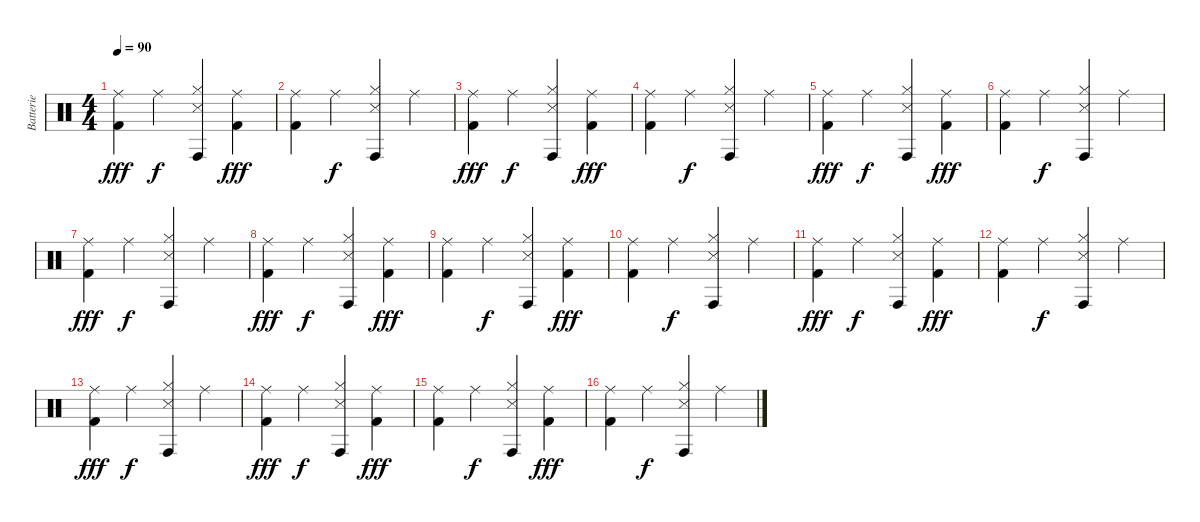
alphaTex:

\track ("Batterie" "Batterie") {instrument percussion}
\staff {score}
\articulation defaults
\ts (4 4)
\tempo 90
\clef neutral
\ks c
("Ride (middle)" "Kick (hit) 2").4{dy fff} "Ride (middle)".4{dy f} ("Snare (side stick) 3" "Hi-Hat (closed)" "Conga high (hit)").4 ("Ride (middle)" "Kick (hit) 2").4{dy fff} |
("Ride (middle)" "Kick (hit) 2").4 "Ride (middle)".4{dy f} ("Snare (side stick) 3" "Hi-Hat (closed)" "Conga high (hit)").4 "Ride (middle)".4 |
("Ride (middle)" "Kick (hit) 2").4{dy fff} "Ride (middle)".4{dy f} ("Snare (side stick) 3" "Hi-Hat (closed)" "Conga high (hit)").4 ("Ride (middle)" "Kick (hit) 2").4{dy fff} |
("Ride (middle)" "Kick (hit) 2").4 "Ride (middle)".4{dy f} ("Snare (side stick) 3" "Hi-Hat (closed)" "Conga high (hit)").4 "Ride (middle)".4 |
("Ride (middle)" "Kick (hit) 2").4{dy fff} "Ride (middle)".4{dy f} ("Snare (side stick) 3" "Hi-Hat (closed)" "Conga high (hit)").4 ("Ride (middle)" "Kick (hit) 2").4{dy fff} |
("Ride (middle)" "Kick (hit) 2").4 "Ride (middle)".4{dy f} ("Snare (side stick) 3" "Hi-Hat (closed)" "Conga high (hit)").4 "Ride (middle)".4 |
("Ride (middle)" "Kick (hit) 2").4{dy fff} "Ride (middle)".4{dy f} ("Snare (side stick) 3" "Hi-Hat (closed)" "Conga high (hit)").4 "Ride (middle)".4 |
("Ride (middle)" "Kick (hit) 2").4{dy fff} "Ride (middle)".4{dy f} ("Snare (side stick) 3" "Hi-Hat (closed)" "Conga high (hit)").4 ("Ride (middle)" "Kick (hit) 2").4{dy fff} |
("Ride (middle)" "Kick (hit) 2").4 "Ride (middle)".4{dy f} ("Snare (side stick) 3" "Hi-Hat (closed)" "Conga high (hit)").4 ("Ride (middle)" "Kick (hit) 2").4{dy fff} |
("Ride (middle)" "Kick (hit) 2").4 "Ride (middle)".4{dy f} ("Snare (side stick) 3" "Hi-Hat (closed)" "Conga high (hit)").4 "Ride (middle)".4 |
("Ride (middle)" "Kick (hit) 2").4{dy fff} "Ride (middle)".4{dy f} ("Snare (side stick) 3" "Hi-Hat (closed)" "Conga high (hit)").4 ("Ride (middle)" "Kick (hit) 2").4{dy fff} |
("Ride (middle)" "Kick (hit) 2").4 "Ride (middle)".4{dy f} ("Snare (side stick) 3" "Hi-Hat (closed)" "Conga high (hit)").4 "Ride (middle)".4 |
("Ride (middle)" "Kick (hit) 2").4{dy fff} "Ride (middle)".4{dy f} ("Snare (side stick) 3" "Hi-Hat (closed)" "Conga high (hit)").4 "Ride (middle)".4 |
("Ride (middle)" "Kick (hit) 2").4{dy fff} "Ride (middle)".4{dy f} ("Snare (side stick) 3" "Hi-Hat (closed)" "Conga high (hit)").4 ("Ride (middle)" "Kick (hit) 2").4{dy fff} |
("Ride (middle)" "Kick (hit) 2").4 "Ride (middle)".4{dy f} ("Snare (side stick) 3" "Hi-Hat (closed)" "Conga high (hit)").4 ("Ride (middle)" "Kick (hit) 2").4{dy fff} |
("Ride (middle)" "Kick (hit) 2").4 "Ride (middle)".4{dy f} ("Snare (side stick) 3" "Hi-Hat (closed)" "Conga high (hit)").4 "Ride (middle)".4
